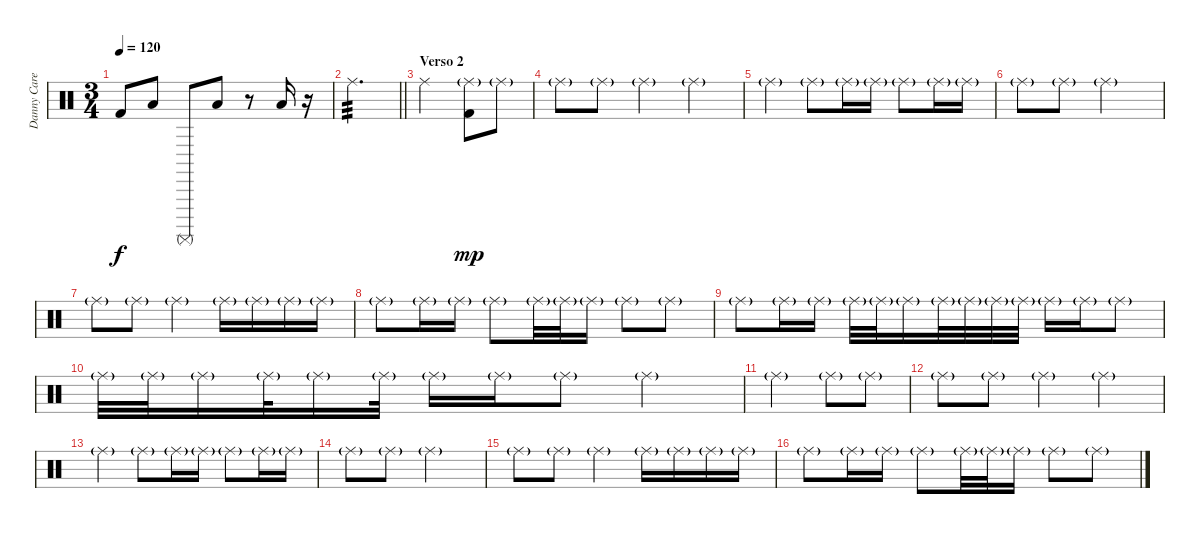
\track ("Danny Carey" "Danny Care") {instrument percussion}
\staff {score}
\articulation defaults
\ts (3 4)
\tempo 120
\clef neutral
\ks c "Kick (hit) 2".8{dy f} "Low Tom (hit)".8 "Surdo (mute)".8 "Low Tom (hit)".8
r.8 "Low Tom (hit)".16 r.16{volume 0} |
\barLineRight lightlight "Ride (middle)".2{d tp 3 volume 13}
|
\section ("" "Verso 2")
"Ride (middle)".2 ("Ride (middle)"{g} "Kick (hit) 2").8{dy mp} "Ride (middle)"{g}.8 |
"Ride (middle)"{g}.8 "Ride (middle)"{g}.8 "Ride (middle)"{g}.4 "Ride (middle)"{g}.4 |
"Ride (middle)"{g}.4 "Ride (middle)"{g}.8 "Ride (middle)"{g}.16 "Ride (middle)"{g}.16 "Ride (middle)"{g}.8 "Ride (middle)"{g}.16 "Ride (middle)"{g}.16 |
"Ride (middle)"{g}.8 "Ride (middle)"{g}.8 "Ride (middle)"{g}.2 |
"Ride (middle)"{g}.8 "Ride (middle)"{g}.8 "Ride (middle)"{g}.4 "Ride (middle)"{g}.16 "Ride (middle)"{g}.16 "Ride (middle)"{g}.16 "Ride (middle)"{g}.16 |
"Ride (middle)"{g}.8 "Ride (middle)"{g}.16 "Ride (middle)"{g}.16 "Ride (middle)"{g}.8 "Ride (middle)"{g}.32 "Ride (middle)"{g}.32 "Ride (middle)"{g}.16 "Ride (middle)"{g}.8 "Ride (middle)"{g}.8 |
"Ride (middle)"{g}.8 "Ride (middle)"{g}.16 "Ride (middle)"{g}.16 "Ride (middle)"{g}.32 "Ride (middle)"{g}.32 "Ride (middle)"{g}.16 "Ride (middle)"{g}.32 "Ride (middle)"{g}.32 "Ride (middle)"{g}.32 "Ride (middle)"{g}.32 "Ride (middle)"{g}.16 "Ride (middle)"{g}.16 "Ride (middle)"{g}.8 |
"Ride (middle)"{g}.32 "Ride (middle)"{g}.32 "Ride (middle)"{g}.16 "Ride (middle)"{g}.32 "Ride (middle)"{g}.16 "Ride (middle)"{g}.32 "Ride (middle)"{g}.16 "Ride (middle)"{g}.16 "Ride (middle)"{g}.8 "Ride (middle)"{g}.4 |
"Ride (middle)"{g}.2 "Ride (middle)"{g}.8 "Ride (middle)"{g}.8 |
"Ride (middle)"{g}.8 "Ride (middle)"{g}.8 "Ride (middle)"{g}.4 "Ride (middle)"{g}.4 |
"Ride (middle)"{g}.4 "Ride (middle)"{g}.8 "Ride (middle)"{g}.16 "Ride (middle)"{g}.16 "Ride (middle)"{g}.8 "Ride (middle)"{g}.16 "Ride (middle)"{g}.16 |
"Ride (middle)"{g}.8 "Ride (middle)"{g}.8 "Ride (middle)"{g}.2 |
"Ride (middle)"{g}.8 "Ride (middle)"{g}.8 "Ride (middle)"{g}.4 "Ride (middle)"{g}.16 "Ride (middle)"{g}.16 "Ride (middle)"{g}.16 "Ride (middle)"{g}.16 |
"Ride (middle)"{g}.8 "Ride (middle)"{g}.16 "Ride (middle)"{g}.16 "Ride (middle)"{g}.8 "Ride (middle)"{g}.32 "Ride (middle)"{g}.32 "Ride (middle)"{g}.16 "Ride (middle)"{g}.8 "Ride (middle)"{g}.8
